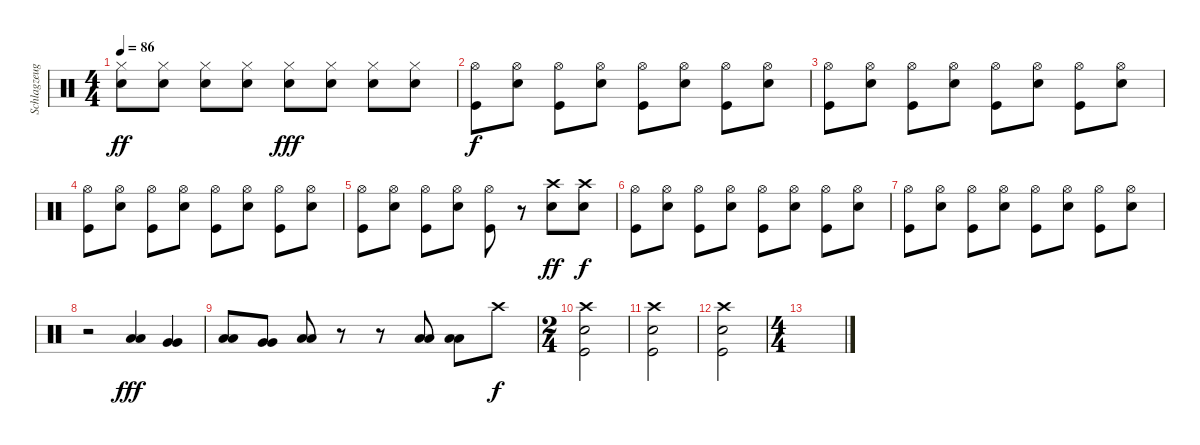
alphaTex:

\track ("Schlagzeug" "Schlagzeug") {instrument percussion}
\staff {score}
\articulation defaults
\ts (4 4)
\tempo 86
\clef neutral
\ks c
("Hi-Hat (closed)" "Snare (hit) 2").8{dy ff} ("Hi-Hat (closed)" "Snare (hit) 2").8 ("Hi-Hat (closed)" "Snare (hit) 2").8 ("Hi-Hat (closed)" "Snare (hit) 2").8 ("Hi-Hat (closed)" "Snare (hit) 2").8{dy fff} ("Hi-Hat (closed)" "Snare (hit) 2").8 ("Hi-Hat (closed)" "Snare (hit) 2").8 ("Hi-Hat (closed)" "Snare (hit) 2").8 |
("Hi-Hat (open)" "Kick (hit)").8{dy f} ("Hi-Hat (open)" "Snare (hit) 2").8 ("Hi-Hat (open)" "Kick (hit)").8 ("Hi-Hat (open)" "Snare (hit) 2").8 ("Hi-Hat (open)" "Kick (hit)").8 ("Hi-Hat (open)" "Snare (hit) 2").8 ("Hi-Hat (open)" "Kick (hit)").8 ("Hi-Hat (open)" "Snare (hit) 2").8 |
("Hi-Hat (open)" "Kick (hit)").8 ("Hi-Hat (open)" "Snare (hit) 2").8 ("Hi-Hat (open)" "Kick (hit)").8 ("Hi-Hat (open)" "Snare (hit) 2").8 ("Hi-Hat (open)" "Kick (hit)").8 ("Hi-Hat (open)" "Snare (hit) 2").8 ("Hi-Hat (open)" "Kick (hit)").8 ("Hi-Hat (open)" "Snare (hit) 2").8 |
("Hi-Hat (open)" "Kick (hit)").8 ("Hi-Hat (open)" "Snare (hit) 2").8 ("Hi-Hat (open)" "Kick (hit)").8 ("Hi-Hat (open)" "Snare (hit) 2").8 ("Hi-Hat (open)" "Kick (hit)").8 ("Hi-Hat (open)" "Snare (hit) 2").8 ("Hi-Hat (open)" "Kick (hit)").8 ("Hi-Hat (open)" "Snare (hit) 2").8 |
("Hi-Hat (open)" "Kick (hit)").8 ("Hi-Hat (open)" "Snare (hit) 2").8 ("Hi-Hat (open)" "Kick (hit)").8 ("Hi-Hat (open)" "Snare (hit) 2").8 ("Hi-Hat (open)" "Kick (hit)").8 r.8 ("Crash high (hit)" "Snare (hit) 2").8{dy ff} ("Crash high (hit)" "Snare (hit) 2").8{dy f} |
("Hi-Hat (open)" "Kick (hit)").8 ("Hi-Hat (open)" "Snare (hit) 2").8 ("Hi-Hat (open)" "Kick (hit)").8 ("Hi-Hat (open)" "Snare (hit) 2").8 ("Hi-Hat (open)" "Kick (hit)").8 ("Hi-Hat (open)" "Snare (hit) 2").8 ("Hi-Hat (open)" "Kick (hit)").8 ("Hi-Hat (open)" "Snare (hit) 2").8 |
("Hi-Hat (open)" "Kick (hit)").8 ("Hi-Hat (open)" "Snare (hit) 2").8 ("Hi-Hat (open)" "Kick (hit)").8 ("Hi-Hat (open)" "Snare (hit) 2").8 ("Hi-Hat (open)" "Kick (hit)").8 ("Hi-Hat (open)" "Snare (hit) 2").8 ("Hi-Hat (open)" "Kick (hit)").8 ("Hi-Hat (open)" "Snare (hit) 2").8 |
r.2 ("Low Tom (hit)" "Low Tom (hit)").4{dy fff} ("Very Low Tom (hit)" "Very Low Tom (hit)").4 |
("Low Tom (hit)" "Low Tom (hit)").8 ("Very Low Tom (hit)" "Very Low Tom (hit)").8 ("Low Floor Tom (hit)" "Low Floor Tom (hit)").8 r.8 r.8 ("Low Tom (hit)" "Low Tom (hit)").8 ("Low Tom (hit)" "Low Tom (hit)").8 "Crash high (hit)".8{dy f} |
\ts (2 4)
("Crash high (hit)" "Snare (hit) 2" "Kick (hit)").2 |
("Crash high (hit)" "Snare (hit) 2" "Kick (hit)").2 |
("Crash high (hit)" "Snare (hit) 2" "Kick (hit)").2 |
\ts (4 4)
